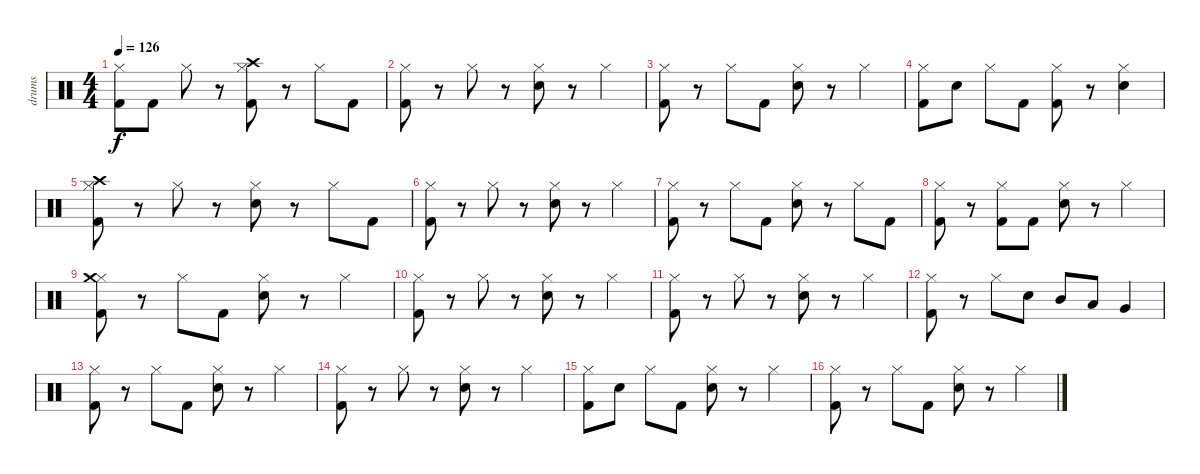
\track ("drums" "drums") {instrument percussion}
\staff {score}
\articulation defaults
\ts (4 4)
\tempo 126
\clef neutral
\ks c
("Kick (hit) 2" "Hi-Hat (closed)").8{dy f} "Kick (hit) 2".8 "Hi-Hat (closed)".8 r.8 ("Kick (hit) 2" "Hi-Hat (closed)" "Crash high (hit)").8 r.8 "Hi-Hat (closed)".8 "Kick (hit) 2".8 |
("Kick (hit) 2" "Hi-Hat (closed)").8 r.8 "Hi-Hat (closed)".8 r.8 ("Electric Snare (hit)" "Hi-Hat (closed)").8 r.8 "Hi-Hat (closed)".4 |
("Kick (hit) 2" "Hi-Hat (closed)").8 r.8 "Hi-Hat (closed)".8 "Kick (hit) 2".8 ("Electric Snare (hit)" "Hi-Hat (closed)").8 r.8 "Hi-Hat (closed)".4 |
("Kick (hit) 2" "Hi-Hat (closed)").8 "Electric Snare (hit)".8 "Hi-Hat (closed)".8 "Kick (hit) 2".8 ("Kick (hit) 2" "Hi-Hat (closed)").8 r.8 ("Electric Snare (hit)" "Hi-Hat (closed)").4 |
("Kick (hit) 2" "Hi-Hat (closed)" "Crash high (hit)").8 r.8 "Hi-Hat (closed)".8 r.8 ("Electric Snare (hit)" "Hi-Hat (closed)").8 r.8 "Hi-Hat (closed)".8 "Kick (hit) 2".8 |
("Kick (hit) 2" "Hi-Hat (closed)").8 r.8 "Hi-Hat (closed)".8 r.8 ("Electric Snare (hit)" "Hi-Hat (closed)").8 r.8 "Hi-Hat (closed)".4 |
("Kick (hit) 2" "Hi-Hat (closed)").8 r.8 "Hi-Hat (closed)".8 "Kick (hit) 2".8 ("Electric Snare (hit)" "Hi-Hat (closed)").8 r.8 "Hi-Hat (closed)".8 "Kick (hit) 2".8 |
("Kick (hit) 2" "Hi-Hat (closed)").8 r.8 ("Kick (hit) 2" "Hi-Hat (closed)").8 "Kick (hit) 2".8 ("Electric Snare (hit)" "Hi-Hat (closed)").8 r.8 "Hi-Hat (closed)".4 |
("Kick (hit) 2" "Hi-Hat (closed)" "Crash medium (hit)").8 r.8 "Hi-Hat (closed)".8 "Kick (hit) 2".8 ("Electric Snare (hit)" "Hi-Hat (closed)").8 r.8 "Hi-Hat (closed)".4 |
("Kick (hit) 2" "Hi-Hat (closed)").8 r.8 "Hi-Hat (closed)".8 r.8 ("Electric Snare (hit)" "Hi-Hat (closed)").8 r.8 "Hi-Hat (closed)".4 |
("Kick (hit) 2" "Hi-Hat (closed)").8 r.8 "Hi-Hat (closed)".8 r.8 ("Electric Snare (hit)" "Hi-Hat (closed)").8 r.8 "Hi-Hat (closed)".4 |
("Kick (hit) 2" "Hi-Hat (closed)").8 r.8 "Hi-Hat (closed)".8 "Electric Snare (hit)".8 "Mid Tom (hit)".8 "Low Tom (hit)".8 "Very Low Tom (hit)".4 |
("Kick (hit) 2" "Hi-Hat (closed)").8 r.8 "Hi-Hat (closed)".8 "Kick (hit) 2".8 ("Electric Snare (hit)" "Hi-Hat (closed)").8 r.8 "Hi-Hat (closed)".4 |
("Kick (hit) 2" "Hi-Hat (closed)").8 r.8 "Hi-Hat (closed)".8 r.8 ("Electric Snare (hit)" "Hi-Hat (closed)").8 r.8 "Hi-Hat (closed)".4 |
("Kick (hit) 2" "Hi-Hat (closed)").8 "Electric Snare (hit)".8 "Hi-Hat (closed)".8 "Kick (hit) 2".8 ("Electric Snare (hit)" "Hi-Hat (closed)").8 r.8 "Hi-Hat (closed)".4 |
("Kick (hit) 2" "Hi-Hat (closed)").8 r.8 "Hi-Hat (closed)".8 "Kick (hit) 2".8 ("Electric Snare (hit)" "Hi-Hat (closed)").8 r.8 "Hi-Hat (closed)".4
